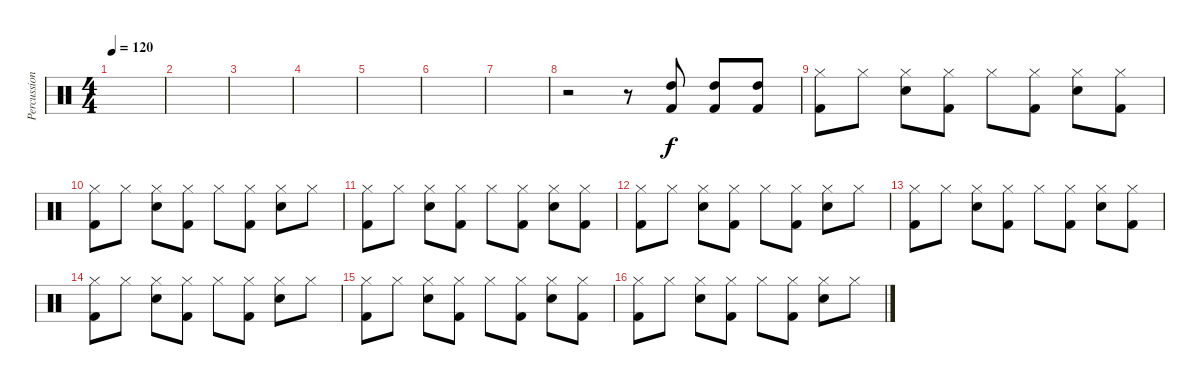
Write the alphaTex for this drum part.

\track ("Percussion" "Percussion") {instrument percussion}
\staff {score}
\articulation defaults
\ts (4 4)
\tempo 120
\clef neutral
\ks c
|
|
|
|
|
|
|
r.2 r.8 ("Kick (hit) 2" "High Tom (hit)").8 ("Kick (hit) 2" "High Tom (hit)").8 ("Kick (hit) 2" "High Tom (hit)").8 |
("Hi-Hat (closed)" "Kick (hit) 2").8 "Hi-Hat (closed)".8 ("Hi-Hat (closed)" "Snare (hit) 2").8 ("Hi-Hat (closed)" "Kick (hit) 2").8 "Hi-Hat (closed)".8 ("Hi-Hat (closed)" "Kick (hit) 2").8 ("Hi-Hat (closed)" "Snare (hit) 2").8 ("Hi-Hat (closed)" "Kick (hit) 2").8 |
("Hi-Hat (closed)" "Kick (hit) 2").8 "Hi-Hat (closed)".8 ("Hi-Hat (closed)" "Snare (hit) 2").8 ("Hi-Hat (closed)" "Kick (hit) 2").8 "Hi-Hat (closed)".8 ("Hi-Hat (closed)" "Kick (hit) 2").8 ("Hi-Hat (closed)" "Snare (hit) 2").8 "Hi-Hat (closed)".8 |
("Hi-Hat (closed)" "Kick (hit) 2").8 "Hi-Hat (closed)".8 ("Hi-Hat (closed)" "Snare (hit) 2").8 ("Hi-Hat (closed)" "Kick (hit) 2").8 "Hi-Hat (closed)".8 ("Hi-Hat (closed)" "Kick (hit) 2").8 ("Hi-Hat (closed)" "Snare (hit) 2").8 ("Hi-Hat (closed)" "Kick (hit) 2").8 |
("Hi-Hat (closed)" "Kick (hit) 2").8 "Hi-Hat (closed)".8 ("Hi-Hat (closed)" "Snare (hit) 2").8 ("Hi-Hat (closed)" "Kick (hit) 2").8 "Hi-Hat (closed)".8 ("Hi-Hat (closed)" "Kick (hit) 2").8 ("Hi-Hat (closed)" "Snare (hit) 2").8 "Hi-Hat (closed)".8 |
("Hi-Hat (closed)" "Kick (hit) 2").8 "Hi-Hat (closed)".8 ("Hi-Hat (closed)" "Snare (hit) 2").8 ("Hi-Hat (closed)" "Kick (hit) 2").8 "Hi-Hat (closed)".8 ("Hi-Hat (closed)" "Kick (hit) 2").8 ("Hi-Hat (closed)" "Snare (hit) 2").8 ("Hi-Hat (closed)" "Kick (hit) 2").8 |
("Hi-Hat (closed)" "Kick (hit) 2").8 "Hi-Hat (closed)".8 ("Hi-Hat (closed)" "Snare (hit) 2").8 ("Hi-Hat (closed)" "Kick (hit) 2").8 "Hi-Hat (closed)".8 ("Hi-Hat (closed)" "Kick (hit) 2").8 ("Hi-Hat (closed)" "Snare (hit) 2").8 "Hi-Hat (closed)".8 |
("Hi-Hat (closed)" "Kick (hit) 2").8 "Hi-Hat (closed)".8 ("Hi-Hat (closed)" "Snare (hit) 2").8 ("Hi-Hat (closed)" "Kick (hit) 2").8 "Hi-Hat (closed)".8 ("Hi-Hat (closed)" "Kick (hit) 2").8 ("Hi-Hat (closed)" "Snare (hit) 2").8 ("Hi-Hat (closed)" "Kick (hit) 2").8 |
("Hi-Hat (closed)" "Kick (hit) 2").8 "Hi-Hat (closed)".8 ("Hi-Hat (closed)" "Snare (hit) 2").8 ("Hi-Hat (closed)" "Kick (hit) 2").8 "Hi-Hat (closed)".8 ("Hi-Hat (closed)" "Kick (hit) 2").8 ("Hi-Hat (closed)" "Snare (hit) 2").8 "Hi-Hat (closed)".8
